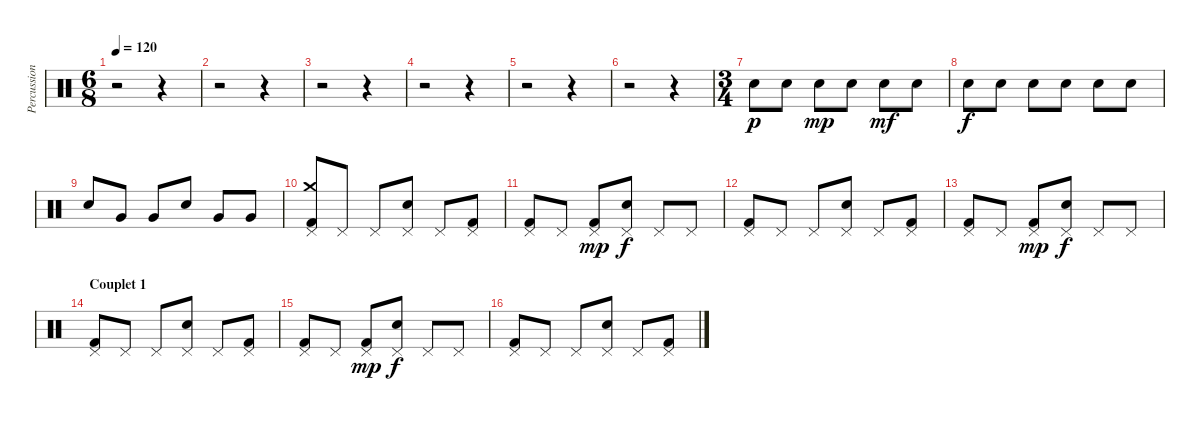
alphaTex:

\track ("Percussions" "Percussion") {instrument percussion}
\staff {score}
\articulation defaults
\ts (6 8)
\tempo 120
\clef neutral
\ks c
r.2{dy p} r.4 |
r.2 r.4 |
r.2 r.4 |
r.2 r.4 |
r.2 r.4 |
r.2 r.4 |
\ts (3 4)
"Electric Snare (hit)".8 "Electric Snare (hit)".8 "Electric Snare (hit)".8{dy mp} "Electric Snare (hit)".8 "Electric Snare (hit)".8{dy mf} "Electric Snare (hit)".8 |
"Electric Snare (hit)".8{dy f} "Electric Snare (hit)".8 "Electric Snare (hit)".8 "Electric Snare (hit)".8 "Electric Snare (hit)".8 "Electric Snare (hit)".8 |
"Electric Snare (hit)".8 "Very Low Tom (hit)".8 "Very Low Tom (hit)".8 "Electric Snare (hit)".8 "Very Low Tom (hit)".8 "Very Low Tom (hit)".8 |
("Pedal Hi-Hat (hit)" "Crash medium (hit)" "Kick (hit) 2").8 "Pedal Hi-Hat (hit)".8 "Pedal Hi-Hat (hit)".8 ("Pedal Hi-Hat (hit)" "Electric Snare (hit)").8 "Pedal Hi-Hat (hit)".8 ("Pedal Hi-Hat (hit)" "Kick (hit) 2").8 |
("Pedal Hi-Hat (hit)" "Kick (hit) 2").8 "Pedal Hi-Hat (hit)".8 ("Pedal Hi-Hat (hit)" "Kick (hit) 2").8{dy mp} ("Pedal Hi-Hat (hit)" "Electric Snare (hit)").8{dy f} "Pedal Hi-Hat (hit)".8 "Pedal Hi-Hat (hit)".8 |
("Pedal Hi-Hat (hit)" "Kick (hit) 2").8 "Pedal Hi-Hat (hit)".8 "Pedal Hi-Hat (hit)".8 ("Pedal Hi-Hat (hit)" "Electric Snare (hit)").8 "Pedal Hi-Hat (hit)".8 ("Pedal Hi-Hat (hit)" "Kick (hit) 2").8 |
("Pedal Hi-Hat (hit)" "Kick (hit) 2").8 "Pedal Hi-Hat (hit)".8 ("Pedal Hi-Hat (hit)" "Kick (hit) 2").8{dy mp} ("Pedal Hi-Hat (hit)" "Electric Snare (hit)").8{dy f} "Pedal Hi-Hat (hit)".8 "Pedal Hi-Hat (hit)".8 |
\section ("" "Couplet 1")
("Pedal Hi-Hat (hit)" "Kick (hit) 2").8 "Pedal Hi-Hat (hit)".8 "Pedal Hi-Hat (hit)".8 ("Pedal Hi-Hat (hit)" "Electric Snare (hit)").8 "Pedal Hi-Hat (hit)".8 ("Pedal Hi-Hat (hit)" "Kick (hit) 2").8 |
("Pedal Hi-Hat (hit)" "Kick (hit) 2").8 "Pedal Hi-Hat (hit)".8 ("Pedal Hi-Hat (hit)" "Kick (hit) 2").8{dy mp} ("Pedal Hi-Hat (hit)" "Electric Snare (hit)").8{dy f} "Pedal Hi-Hat (hit)".8 "Pedal Hi-Hat (hit)".8 |
("Pedal Hi-Hat (hit)" "Kick (hit) 2").8 "Pedal Hi-Hat (hit)".8 "Pedal Hi-Hat (hit)".8 ("Pedal Hi-Hat (hit)" "Electric Snare (hit)").8 "Pedal Hi-Hat (hit)".8 ("Pedal Hi-Hat (hit)" "Kick (hit) 2").8
